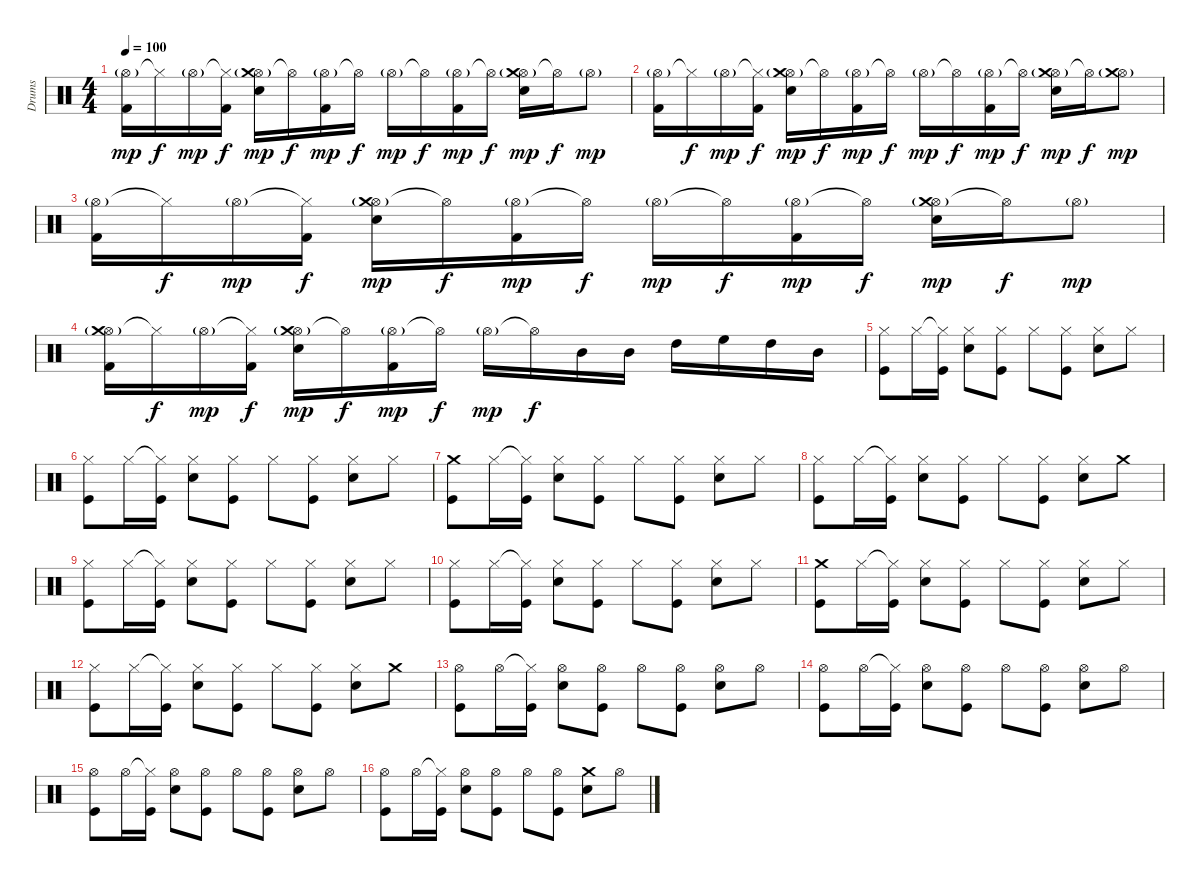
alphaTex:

\track ("Drums" "Drums") {instrument percussion}
\staff {score}
\articulation defaults
\ts (4 4)
\tempo 100
\clef neutral
\ks c
("Hi-Hat (open)"{g} "Kick (hit) 2").16{dy mp} "Hi-Hat (closed)"{t}.16{dy f} "Hi-Hat (open)"{g}.16{dy mp} ("Hi-Hat (closed)"{t} "Kick (hit) 2").16{dy f} ("Hi-Hat (open)"{g} "Crash medium (hit)"{g} "Electric Snare (hit)").16{dy mp} "Hi-Hat (open)"{t}.16{dy f} ("Hi-Hat (open)"{g} "Kick (hit) 2").16{dy mp} "Hi-Hat (open)"{t}.16{dy f} "Hi-Hat (open)"{g}.16{dy mp} "Hi-Hat (open)"{t}.16{dy f} ("Hi-Hat (open)"{g} "Kick (hit) 2").16{dy mp} "Hi-Hat (open)"{t}.16{dy f} ("Hi-Hat (open)"{g} "Crash medium (hit)"{g} "Electric Snare (hit)").16{dy mp} "Hi-Hat (open)"{t}.16{dy f} "Hi-Hat (open)"{g}.8{dy mp} |
("Hi-Hat (open)"{g} "Kick (hit) 2").16 "Hi-Hat (closed)"{t}.16{dy f} "Hi-Hat (open)"{g}.16{dy mp} ("Hi-Hat (closed)"{t} "Kick (hit) 2").16{dy f} ("Hi-Hat (open)"{g} "Crash medium (hit)"{g} "Electric Snare (hit)").16{dy mp} "Hi-Hat (open)"{t}.16{dy f} ("Hi-Hat (open)"{g} "Kick (hit) 2").16{dy mp} "Hi-Hat (open)"{t}.16{dy f} "Hi-Hat (open)"{g}.16{dy mp} "Hi-Hat (open)"{t}.16{dy f} ("Hi-Hat (open)"{g} "Kick (hit) 2").16{dy mp} "Hi-Hat (open)"{t}.16{dy f} ("Hi-Hat (open)"{g} "Crash medium (hit)" "Electric Snare (hit)").16{dy mp} "Hi-Hat (open)"{t}.16{dy f} ("Hi-Hat (open)"{g} "Crash medium (hit)").8{dy mp} |
("Hi-Hat (open)"{g} "Kick (hit) 2").16 "Hi-Hat (closed)"{t}.16{dy f} "Hi-Hat (open)"{g}.16{dy mp} ("Hi-Hat (closed)"{t} "Kick (hit) 2").16{dy f} ("Hi-Hat (open)"{g} "Crash medium (hit)"{g} "Electric Snare (hit)").16{dy mp} "Hi-Hat (open)"{t}.16{dy f} ("Hi-Hat (open)"{g} "Kick (hit) 2").16{dy mp} "Hi-Hat (open)"{t}.16{dy f} "Hi-Hat (open)"{g}.16{dy mp} "Hi-Hat (open)"{t}.16{dy f} ("Hi-Hat (open)"{g} "Kick (hit) 2").16{dy mp} "Hi-Hat (open)"{t}.16{dy f} ("Hi-Hat (open)"{g} "Crash medium (hit)"{g} "Electric Snare (hit)").16{dy mp} "Hi-Hat (open)"{t}.16{dy f} "Hi-Hat (open)"{g}.8{dy mp} |
("Hi-Hat (open)"{g} "Crash medium (hit)" "Kick (hit) 2").16 "Hi-Hat (closed)"{t}.16{dy f} "Hi-Hat (open)"{g}.16{dy mp} ("Hi-Hat (closed)"{t} "Kick (hit) 2").16{dy f} ("Hi-Hat (open)"{g} "Crash medium (hit)"{g} "Electric Snare (hit)").16{dy mp} "Hi-Hat (open)"{t}.16{dy f} ("Hi-Hat (open)"{g} "Kick (hit) 2").16{dy mp} "Hi-Hat (open)"{t}.16{dy f} "Hi-Hat (open)"{g}.16{dy mp} "Hi-Hat (open)"{t}.16{dy f} "Mid Tom (hit)".16 "Mid Tom (hit)".16 "High Tom (hit)".16 "High Floor Tom (hit)".16 "High Tom (hit)".16 "Mid Tom (hit)".16 |
("Hi-Hat (closed)" "Kick (hit)").8 "Hi-Hat (closed)".16 ("Hi-Hat (closed)"{t} "Kick (hit)").16 ("Hi-Hat (closed)" "Electric Snare (hit)").8 ("Hi-Hat (closed)" "Kick (hit)").8 "Hi-Hat (closed)".8 ("Hi-Hat (closed)" "Kick (hit)").8 ("Hi-Hat (closed)" "Electric Snare (hit)").8 "Hi-Hat (closed)".8 |
("Hi-Hat (closed)" "Kick (hit)").8 "Hi-Hat (closed)".16 ("Hi-Hat (closed)"{t} "Kick (hit)").16 ("Hi-Hat (closed)" "Electric Snare (hit)").8 ("Hi-Hat (closed)" "Kick (hit)").8 "Hi-Hat (closed)".8 ("Hi-Hat (closed)" "Kick (hit)").8 ("Hi-Hat (closed)" "Electric Snare (hit)").8 "Hi-Hat (closed)".8 |
("Crash medium (hit)" "Kick (hit)").8 "Hi-Hat (closed)".16 ("Hi-Hat (closed)"{t} "Kick (hit)").16 ("Hi-Hat (closed)" "Electric Snare (hit)").8 ("Hi-Hat (closed)" "Kick (hit)").8 "Hi-Hat (closed)".8 ("Hi-Hat (closed)" "Kick (hit)").8 ("Hi-Hat (closed)" "Electric Snare (hit)").8 "Hi-Hat (closed)".8 |
("Hi-Hat (closed)" "Kick (hit)").8 "Hi-Hat (closed)".16 ("Hi-Hat (closed)"{t} "Kick (hit)").16 ("Hi-Hat (closed)" "Electric Snare (hit)").8 ("Hi-Hat (closed)" "Kick (hit)").8 "Hi-Hat (closed)".8 ("Hi-Hat (closed)" "Kick (hit)").8 ("Hi-Hat (closed)" "Electric Snare (hit)").8 "Crash medium (hit)".8 |
("Hi-Hat (closed)" "Kick (hit)").8 "Hi-Hat (closed)".16 ("Hi-Hat (closed)"{t} "Kick (hit)").16 ("Hi-Hat (closed)" "Electric Snare (hit)").8 ("Hi-Hat (closed)" "Kick (hit)").8 "Hi-Hat (closed)".8 ("Hi-Hat (closed)" "Kick (hit)").8 ("Hi-Hat (closed)" "Electric Snare (hit)").8 "Hi-Hat (closed)".8 |
("Hi-Hat (closed)" "Kick (hit)").8 "Hi-Hat (closed)".16 ("Hi-Hat (closed)"{t} "Kick (hit)").16 ("Hi-Hat (closed)" "Electric Snare (hit)").8 ("Hi-Hat (closed)" "Kick (hit)").8 "Hi-Hat (closed)".8 ("Hi-Hat (closed)" "Kick (hit)").8 ("Hi-Hat (closed)" "Electric Snare (hit)").8 "Hi-Hat (closed)".8 |
("Crash medium (hit)" "Kick (hit)").8 "Hi-Hat (closed)".16 ("Hi-Hat (closed)"{t} "Kick (hit)").16 ("Hi-Hat (closed)" "Electric Snare (hit)").8 ("Hi-Hat (closed)" "Kick (hit)").8 "Hi-Hat (closed)".8 ("Hi-Hat (closed)" "Kick (hit)").8 ("Hi-Hat (closed)" "Electric Snare (hit)").8 "Hi-Hat (closed)".8 |
("Hi-Hat (closed)" "Kick (hit)").8 "Hi-Hat (closed)".16 ("Hi-Hat (closed)"{t} "Kick (hit)").16 ("Hi-Hat (closed)" "Electric Snare (hit)").8 ("Hi-Hat (closed)" "Kick (hit)").8 "Hi-Hat (closed)".8 ("Hi-Hat (closed)" "Kick (hit)").8 ("Hi-Hat (closed)" "Electric Snare (hit)").8 "Crash medium (hit)".8 |
("Hi-Hat (open)" "Kick (hit)").8 "Hi-Hat (open)".16 ("Hi-Hat (closed)"{t} "Kick (hit)").16 ("Hi-Hat (open)" "Electric Snare (hit)").8 ("Hi-Hat (open)" "Kick (hit)").8 "Hi-Hat (open)".8 ("Hi-Hat (open)" "Kick (hit)").8 ("Hi-Hat (open)" "Electric Snare (hit)").8 "Hi-Hat (open)".8 |
("Hi-Hat (open)" "Kick (hit)").8 "Hi-Hat (open)".16 ("Hi-Hat (closed)"{t} "Kick (hit)").16 ("Hi-Hat (open)" "Electric Snare (hit)").8 ("Hi-Hat (open)" "Kick (hit)").8 "Hi-Hat (open)".8 ("Hi-Hat (open)" "Kick (hit)").8 ("Hi-Hat (open)" "Electric Snare (hit)").8 "Hi-Hat (open)".8 |
("Hi-Hat (open)" "Kick (hit)").8 "Hi-Hat (open)".16 ("Hi-Hat (closed)"{t} "Kick (hit)").16 ("Hi-Hat (open)" "Electric Snare (hit)").8 ("Hi-Hat (open)" "Kick (hit)").8 "Hi-Hat (open)".8 ("Hi-Hat (open)" "Kick (hit)").8 ("Hi-Hat (open)" "Electric Snare (hit)").8 "Hi-Hat (open)".8 |
("Hi-Hat (open)" "Kick (hit)").8 "Hi-Hat (open)".16 ("Hi-Hat (closed)"{t} "Kick (hit)").16 ("Hi-Hat (open)" "Electric Snare (hit)").8 ("Hi-Hat (open)" "Kick (hit)").8 "Hi-Hat (open)".8 ("Hi-Hat (open)" "Kick (hit)").8 ("Crash medium (hit)" "Electric Snare (hit)").8 "Hi-Hat (open)".8
